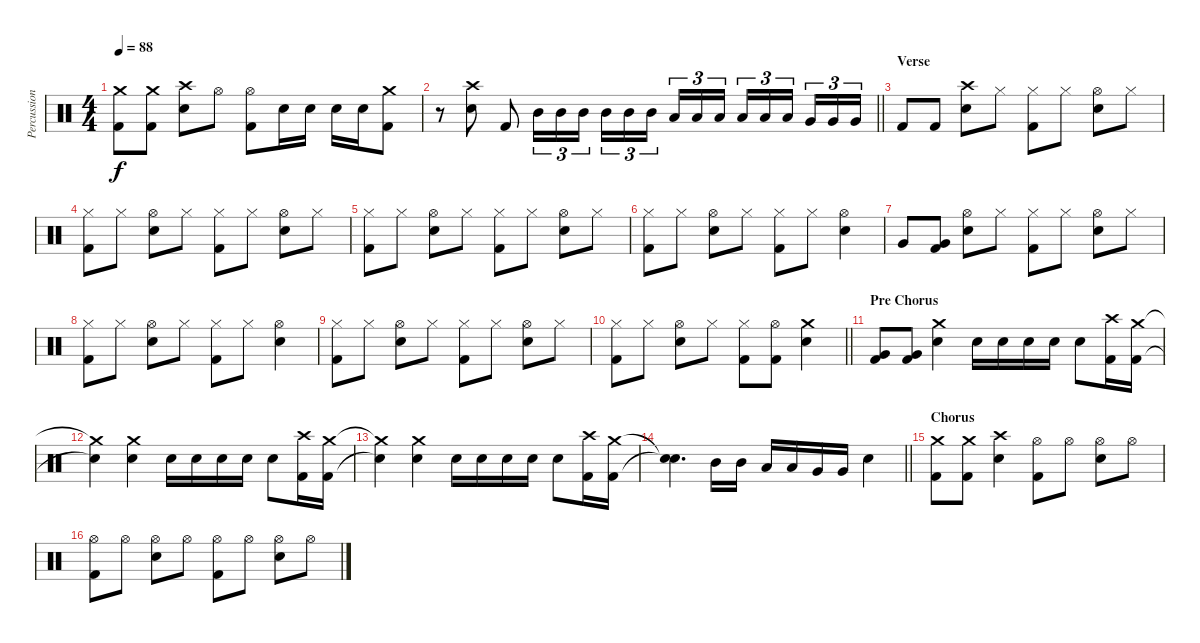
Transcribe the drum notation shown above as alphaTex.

\track ("Percussions" "Percussion") {instrument percussion}
\staff {score}
\articulation defaults
\ts (4 4)
\tempo 88
\clef neutral
\ks c
("Crash medium (hit)" "Kick (hit) 2").8{dy f} ("Crash medium (hit)" "Kick (hit) 2").8 ("Crash high (hit)" "Snare (hit) 2").8 "Hi-Hat (open)".8 ("Hi-Hat (open)" "Kick (hit) 2").8 "Snare (hit) 2".16 "Snare (hit) 2".16 "Snare (hit) 2".16 "Snare (hit) 2".16 ("Crash medium (hit)" "Kick (hit) 2").8 |
\barLineRight lightlight
r.8 ("Crash high (hit)" "Snare (hit) 2").8 "Kick (hit) 2".8 "Mid Tom (hit)".16{tu (3 2)} "Mid Tom (hit)".16{tu (3 2)} "Mid Tom (hit)".16{tu (3 2)} "Mid Tom (hit)".16{tu (3 2)} "Mid Tom (hit)".16{tu (3 2)} "Mid Tom (hit)".16{tu (3 2) beam splitsecondary} "Low Tom (hit)".16{tu (3 2)} "Low Tom (hit)".16{tu (3 2)} "Low Tom (hit)".16{tu (3 2)} "Low Tom (hit)".16{tu (3 2)} "Low Tom (hit)".16{tu (3 2)} "Low Tom (hit)".16{tu (3 2) beam splitsecondary} "Very Low Tom (hit)".16{tu (3 2)} "Very Low Tom (hit)".16{tu (3 2)} "Very Low Tom (hit)".16{tu (3 2)} |
\section ("" "Verse")
"Kick (hit) 2".8 "Kick (hit) 2".8 ("Crash high (hit)" "Snare (hit) 2").8 "Hi-Hat (closed)".8 ("Hi-Hat (closed)" "Kick (hit) 2").8 "Hi-Hat (closed)".8 ("Hi-Hat (open)" "Snare (hit) 2").8 "Hi-Hat (closed)".8 |
("Hi-Hat (closed)" "Kick (hit) 2").8 "Hi-Hat (closed)".8 ("Hi-Hat (open)" "Snare (hit) 2").8 "Hi-Hat (closed)".8 ("Hi-Hat (closed)" "Kick (hit) 2").8 "Hi-Hat (closed)".8 ("Hi-Hat (open)" "Snare (hit) 2").8 "Hi-Hat (closed)".8 |
("Hi-Hat (closed)" "Kick (hit) 2").8 "Hi-Hat (closed)".8 ("Hi-Hat (open)" "Snare (hit) 2").8 "Hi-Hat (closed)".8 ("Hi-Hat (closed)" "Kick (hit) 2").8 "Hi-Hat (closed)".8 ("Hi-Hat (open)" "Snare (hit) 2").8 "Hi-Hat (closed)".8 |
("Hi-Hat (closed)" "Kick (hit) 2").8 "Hi-Hat (closed)".8 ("Hi-Hat (open)" "Snare (hit) 2").8 "Hi-Hat (closed)".8 ("Hi-Hat (closed)" "Kick (hit) 2").8 "Hi-Hat (closed)".8 ("Hi-Hat (open)" "Snare (hit) 2").4 |
"Very Low Tom (hit)".8 ("Very Low Tom (hit)" "Kick (hit) 2").8 ("Hi-Hat (open)" "Snare (hit) 2").8 "Hi-Hat (closed)".8 ("Hi-Hat (closed)" "Kick (hit) 2").8 "Hi-Hat (closed)".8 ("Hi-Hat (open)" "Snare (hit) 2").8 "Hi-Hat (closed)".8 |
("Hi-Hat (closed)" "Kick (hit) 2").8 "Hi-Hat (closed)".8 ("Hi-Hat (open)" "Snare (hit) 2").8 "Hi-Hat (closed)".8 ("Hi-Hat (closed)" "Kick (hit) 2").8 "Hi-Hat (closed)".8 ("Hi-Hat (open)" "Snare (hit) 2").4 |
("Hi-Hat (closed)" "Kick (hit) 2").8 "Hi-Hat (closed)".8 ("Hi-Hat (open)" "Snare (hit) 2").8 "Hi-Hat (closed)".8 ("Hi-Hat (closed)" "Kick (hit) 2").8 "Hi-Hat (closed)".8 ("Hi-Hat (open)" "Snare (hit) 2").8 "Hi-Hat (closed)".8 |
\barLineRight lightlight
("Hi-Hat (closed)" "Kick (hit) 2").8 "Hi-Hat (closed)".8 ("Hi-Hat (open)" "Snare (hit) 2").8 "Hi-Hat (closed)".8 ("Hi-Hat (closed)" "Kick (hit) 2").8 ("Hi-Hat (open)" "Kick (hit) 2").8 ("Crash medium (hit)" "Snare (hit) 2").4 |
\section ("" "Pre Chorus")
("Very Low Tom (hit)" "Kick (hit) 2").8 ("Very Low Tom (hit)" "Kick (hit) 2").8 ("Crash medium (hit)" "Snare (hit) 2").4 "Snare (hit) 2".16 "Snare (hit) 2".16 "Snare (hit) 2".16 "Snare (hit) 2".16 "Snare (hit) 2".8 ("Crash high (hit)" "Kick (hit) 2").16 ("Crash medium (hit)" "Kick (hit) 2").16 |
("Crash medium (hit)"{t} "Snare (hit)"{t}).4 ("Crash medium (hit)" "Snare (hit) 2").4 "Snare (hit) 2".16 "Snare (hit) 2".16 "Snare (hit) 2".16 "Snare (hit) 2".16 "Snare (hit) 2".8 ("Crash high (hit)" "Kick (hit) 2").16 ("Crash medium (hit)" "Kick (hit) 2").16 |
("Crash medium (hit)"{t} "Snare (hit)"{t}).4 ("Crash medium (hit)" "Snare (hit) 2").4 "Snare (hit) 2".16 "Snare (hit) 2".16 "Snare (hit) 2".16 "Snare (hit) 2".16 "Snare (hit) 2".8 ("Crash high (hit)" "Kick (hit) 2").16 ("Crash medium (hit)" "Kick (hit) 2").16 |
\barLineRight lightlight
("Snare (hit)"{t} "Snare (hit)"{t}).4{d} "Mid Tom (hit)".16 "Mid Tom (hit)".16 "Low Tom (hit)".16 "Low Tom (hit)".16 "Very Low Tom (hit)".16 "Very Low Tom (hit)".16 "Snare (hit) 2".4 |
\section ("" "Chorus")
("Crash medium (hit)" "Kick (hit) 2").8 ("Crash medium (hit)" "Kick (hit) 2").8 ("Crash high (hit)" "Snare (hit) 2").4 ("Hi-Hat (open)" "Kick (hit) 2").8 "Hi-Hat (open)".8 ("Hi-Hat (open)" "Snare (hit) 2").8 "Hi-Hat (open)".8 |
("Hi-Hat (open)" "Kick (hit) 2").8 "Hi-Hat (open)".8 ("Hi-Hat (open)" "Snare (hit) 2").8 "Hi-Hat (open)".8 ("Hi-Hat (open)" "Kick (hit) 2").8 "Hi-Hat (open)".8 ("Hi-Hat (open)" "Snare (hit) 2").8 "Hi-Hat (open)".8
